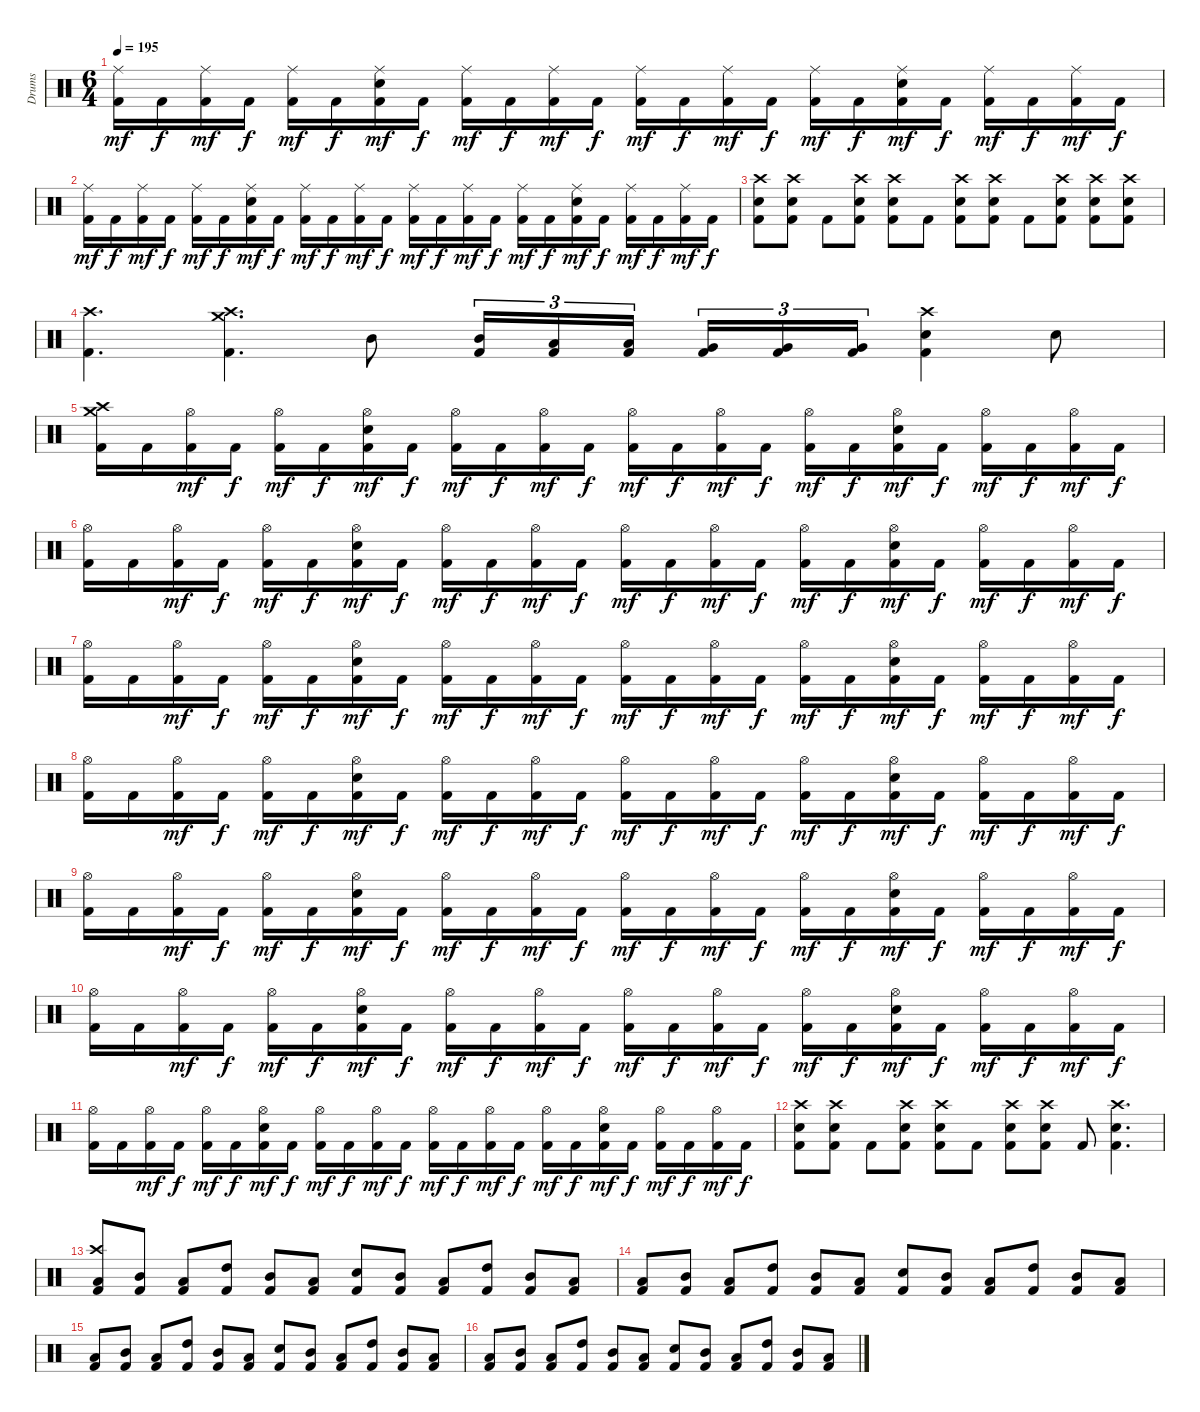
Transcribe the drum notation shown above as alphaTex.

\track ("Drums" "Drums") {instrument percussion}
\staff {score}
\articulation defaults
\ts (6 4)
\tempo 195
\clef neutral
\ks c
("Ride (middle)" "Kick (hit) 2").16{dy mf} "Kick (hit) 2".16{dy f} ("Ride (middle)" "Kick (hit) 2").16{dy mf} "Kick (hit) 2".16{dy f} ("Ride (middle)" "Kick (hit) 2").16{dy mf} "Kick (hit) 2".16{dy f} ("Ride (middle)" "Electric Snare (hit)" "Kick (hit) 2").16{dy mf} "Kick (hit) 2".16{dy f} ("Ride (middle)" "Kick (hit) 2").16{dy mf} "Kick (hit) 2".16{dy f} ("Ride (middle)" "Kick (hit) 2").16{dy mf} "Kick (hit) 2".16{dy f} ("Ride (middle)" "Kick (hit) 2").16{dy mf} "Kick (hit) 2".16{dy f} ("Ride (middle)" "Kick (hit) 2").16{dy mf} "Kick (hit) 2".16{dy f} ("Ride (middle)" "Kick (hit) 2").16{dy mf} "Kick (hit) 2".16{dy f} ("Ride (middle)" "Electric Snare (hit)" "Kick (hit) 2").16{dy mf} "Kick (hit) 2".16{dy f} ("Ride (middle)" "Kick (hit) 2").16{dy mf} "Kick (hit) 2".16{dy f} ("Ride (middle)" "Kick (hit) 2").16{dy mf} "Kick (hit) 2".16{dy f} |
("Ride (middle)" "Kick (hit) 2").16{dy mf} "Kick (hit) 2".16{dy f} ("Ride (middle)" "Kick (hit) 2").16{dy mf} "Kick (hit) 2".16{dy f} ("Ride (middle)" "Kick (hit) 2").16{dy mf} "Kick (hit) 2".16{dy f} ("Ride (middle)" "Electric Snare (hit)" "Kick (hit) 2").16{dy mf} "Kick (hit) 2".16{dy f} ("Ride (middle)" "Kick (hit) 2").16{dy mf} "Kick (hit) 2".16{dy f} ("Ride (middle)" "Kick (hit) 2").16{dy mf} "Kick (hit) 2".16{dy f} ("Ride (middle)" "Kick (hit) 2").16{dy mf} "Kick (hit) 2".16{dy f} ("Ride (middle)" "Kick (hit) 2").16{dy mf} "Kick (hit) 2".16{dy f} ("Ride (middle)" "Kick (hit) 2").16{dy mf} "Kick (hit) 2".16{dy f} ("Ride (middle)" "Electric Snare (hit)" "Kick (hit) 2").16{dy mf} "Kick (hit) 2".16{dy f} ("Ride (middle)" "Kick (hit) 2").16{dy mf} "Kick (hit) 2".16{dy f} ("Ride (middle)" "Kick (hit) 2").16{dy mf} "Kick (hit) 2".16{dy f} |
("Crash high (hit)" "Electric Snare (hit)" "Kick (hit) 2").8 ("Crash high (hit)" "Electric Snare (hit)" "Kick (hit) 2").8 "Kick (hit) 2".8 ("Crash high (hit)" "Electric Snare (hit)" "Kick (hit) 2").8 ("Crash high (hit)" "Electric Snare (hit)" "Kick (hit) 2").8 "Kick (hit) 2".8 ("Crash high (hit)" "Electric Snare (hit)" "Kick (hit) 2").8 ("Crash high (hit)" "Electric Snare (hit)" "Kick (hit) 2").8 "Kick (hit) 2".8 ("Crash high (hit)" "Electric Snare (hit)" "Kick (hit) 2").8 ("Crash high (hit)" "Electric Snare (hit)" "Kick (hit) 2").8 ("Crash high (hit)" "Electric Snare (hit)" "Kick (hit) 2").8 |
("Crash high (hit)" "Kick (hit) 2").4{d} ("Crash high (hit)" "Crash medium (hit)" "Kick (hit) 2").4{d} "Mid Tom (hit)".8 ("Mid Tom (hit)" "Kick (hit) 2").16{tu (3 2)} ("Low Tom (hit)" "Kick (hit) 2").16{tu (3 2)} ("Low Tom (hit)" "Kick (hit) 2").16{tu (3 2) beam splitsecondary} ("Very Low Tom (hit)" "Kick (hit) 2").16{tu (3 2)} ("Very Low Tom (hit)" "Kick (hit) 2").16{tu (3 2)} ("Very Low Tom (hit)" "Kick (hit) 2").16{tu (3 2)} ("Crash high (hit)" "Electric Snare (hit)" "Kick (hit) 2").4 "Electric Snare (hit)".8 |
("Crash high (hit)" "Crash medium (hit)" "Kick (hit) 2").16 "Kick (hit) 2".16 ("Hi-Hat (open)" "Kick (hit) 2").16{dy mf} "Kick (hit) 2".16{dy f} ("Hi-Hat (open)" "Kick (hit) 2").16{dy mf} "Kick (hit) 2".16{dy f} ("Hi-Hat (open)" "Electric Snare (hit)" "Kick (hit) 2").16{dy mf} "Kick (hit) 2".16{dy f} ("Hi-Hat (open)" "Kick (hit) 2").16{dy mf} "Kick (hit) 2".16{dy f} ("Hi-Hat (open)" "Kick (hit) 2").16{dy mf} "Kick (hit) 2".16{dy f} ("Hi-Hat (open)" "Kick (hit) 2").16{dy mf} "Kick (hit) 2".16{dy f} ("Hi-Hat (open)" "Kick (hit) 2").16{dy mf} "Kick (hit) 2".16{dy f} ("Hi-Hat (open)" "Kick (hit) 2").16{dy mf} "Kick (hit) 2".16{dy f} ("Hi-Hat (open)" "Electric Snare (hit)" "Kick (hit) 2").16{dy mf} "Kick (hit) 2".16{dy f} ("Hi-Hat (open)" "Kick (hit) 2").16{dy mf} "Kick (hit) 2".16{dy f} ("Hi-Hat (open)" "Kick (hit) 2").16{dy mf} "Kick (hit) 2".16{dy f} |
("Hi-Hat (open)" "Kick (hit) 2").16 "Kick (hit) 2".16 ("Hi-Hat (open)" "Kick (hit) 2").16{dy mf} "Kick (hit) 2".16{dy f} ("Hi-Hat (open)" "Kick (hit) 2").16{dy mf} "Kick (hit) 2".16{dy f} ("Hi-Hat (open)" "Electric Snare (hit)" "Kick (hit) 2").16{dy mf} "Kick (hit) 2".16{dy f} ("Hi-Hat (open)" "Kick (hit) 2").16{dy mf} "Kick (hit) 2".16{dy f} ("Hi-Hat (open)" "Kick (hit) 2").16{dy mf} "Kick (hit) 2".16{dy f} ("Hi-Hat (open)" "Kick (hit) 2").16{dy mf} "Kick (hit) 2".16{dy f} ("Hi-Hat (open)" "Kick (hit) 2").16{dy mf} "Kick (hit) 2".16{dy f} ("Hi-Hat (open)" "Kick (hit) 2").16{dy mf} "Kick (hit) 2".16{dy f} ("Hi-Hat (open)" "Electric Snare (hit)" "Kick (hit) 2").16{dy mf} "Kick (hit) 2".16{dy f} ("Hi-Hat (open)" "Kick (hit) 2").16{dy mf} "Kick (hit) 2".16{dy f} ("Hi-Hat (open)" "Kick (hit) 2").16{dy mf} "Kick (hit) 2".16{dy f} |
("Hi-Hat (open)" "Kick (hit) 2").16 "Kick (hit) 2".16 ("Hi-Hat (open)" "Kick (hit) 2").16{dy mf} "Kick (hit) 2".16{dy f} ("Hi-Hat (open)" "Kick (hit) 2").16{dy mf} "Kick (hit) 2".16{dy f} ("Hi-Hat (open)" "Electric Snare (hit)" "Kick (hit) 2").16{dy mf} "Kick (hit) 2".16{dy f} ("Hi-Hat (open)" "Kick (hit) 2").16{dy mf} "Kick (hit) 2".16{dy f} ("Hi-Hat (open)" "Kick (hit) 2").16{dy mf} "Kick (hit) 2".16{dy f} ("Hi-Hat (open)" "Kick (hit) 2").16{dy mf} "Kick (hit) 2".16{dy f} ("Hi-Hat (open)" "Kick (hit) 2").16{dy mf} "Kick (hit) 2".16{dy f} ("Hi-Hat (open)" "Kick (hit) 2").16{dy mf} "Kick (hit) 2".16{dy f} ("Hi-Hat (open)" "Electric Snare (hit)" "Kick (hit) 2").16{dy mf} "Kick (hit) 2".16{dy f} ("Hi-Hat (open)" "Kick (hit) 2").16{dy mf} "Kick (hit) 2".16{dy f} ("Hi-Hat (open)" "Kick (hit) 2").16{dy mf} "Kick (hit) 2".16{dy f} |
("Hi-Hat (open)" "Kick (hit) 2").16 "Kick (hit) 2".16 ("Hi-Hat (open)" "Kick (hit) 2").16{dy mf} "Kick (hit) 2".16{dy f} ("Hi-Hat (open)" "Kick (hit) 2").16{dy mf} "Kick (hit) 2".16{dy f} ("Hi-Hat (open)" "Electric Snare (hit)" "Kick (hit) 2").16{dy mf} "Kick (hit) 2".16{dy f} ("Hi-Hat (open)" "Kick (hit) 2").16{dy mf} "Kick (hit) 2".16{dy f} ("Hi-Hat (open)" "Kick (hit) 2").16{dy mf} "Kick (hit) 2".16{dy f} ("Hi-Hat (open)" "Kick (hit) 2").16{dy mf} "Kick (hit) 2".16{dy f} ("Hi-Hat (open)" "Kick (hit) 2").16{dy mf} "Kick (hit) 2".16{dy f} ("Hi-Hat (open)" "Kick (hit) 2").16{dy mf} "Kick (hit) 2".16{dy f} ("Hi-Hat (open)" "Electric Snare (hit)" "Kick (hit) 2").16{dy mf} "Kick (hit) 2".16{dy f} ("Hi-Hat (open)" "Kick (hit) 2").16{dy mf} "Kick (hit) 2".16{dy f} ("Hi-Hat (open)" "Kick (hit) 2").16{dy mf} "Kick (hit) 2".16{dy f} |
("Hi-Hat (open)" "Kick (hit) 2").16 "Kick (hit) 2".16 ("Hi-Hat (open)" "Kick (hit) 2").16{dy mf} "Kick (hit) 2".16{dy f} ("Hi-Hat (open)" "Kick (hit) 2").16{dy mf} "Kick (hit) 2".16{dy f} ("Hi-Hat (open)" "Electric Snare (hit)" "Kick (hit) 2").16{dy mf} "Kick (hit) 2".16{dy f} ("Hi-Hat (open)" "Kick (hit) 2").16{dy mf} "Kick (hit) 2".16{dy f} ("Hi-Hat (open)" "Kick (hit) 2").16{dy mf} "Kick (hit) 2".16{dy f} ("Hi-Hat (open)" "Kick (hit) 2").16{dy mf} "Kick (hit) 2".16{dy f} ("Hi-Hat (open)" "Kick (hit) 2").16{dy mf} "Kick (hit) 2".16{dy f} ("Hi-Hat (open)" "Kick (hit) 2").16{dy mf} "Kick (hit) 2".16{dy f} ("Hi-Hat (open)" "Electric Snare (hit)" "Kick (hit) 2").16{dy mf} "Kick (hit) 2".16{dy f} ("Hi-Hat (open)" "Kick (hit) 2").16{dy mf} "Kick (hit) 2".16{dy f} ("Hi-Hat (open)" "Kick (hit) 2").16{dy mf} "Kick (hit) 2".16{dy f} |
("Hi-Hat (open)" "Kick (hit) 2").16 "Kick (hit) 2".16 ("Hi-Hat (open)" "Kick (hit) 2").16{dy mf} "Kick (hit) 2".16{dy f} ("Hi-Hat (open)" "Kick (hit) 2").16{dy mf} "Kick (hit) 2".16{dy f} ("Hi-Hat (open)" "Electric Snare (hit)" "Kick (hit) 2").16{dy mf} "Kick (hit) 2".16{dy f} ("Hi-Hat (open)" "Kick (hit) 2").16{dy mf} "Kick (hit) 2".16{dy f} ("Hi-Hat (open)" "Kick (hit) 2").16{dy mf} "Kick (hit) 2".16{dy f} ("Hi-Hat (open)" "Kick (hit) 2").16{dy mf} "Kick (hit) 2".16{dy f} ("Hi-Hat (open)" "Kick (hit) 2").16{dy mf} "Kick (hit) 2".16{dy f} ("Hi-Hat (open)" "Kick (hit) 2").16{dy mf} "Kick (hit) 2".16{dy f} ("Hi-Hat (open)" "Electric Snare (hit)" "Kick (hit) 2").16{dy mf} "Kick (hit) 2".16{dy f} ("Hi-Hat (open)" "Kick (hit) 2").16{dy mf} "Kick (hit) 2".16{dy f} ("Hi-Hat (open)" "Kick (hit) 2").16{dy mf} "Kick (hit) 2".16{dy f} |
("Hi-Hat (open)" "Kick (hit) 2").16 "Kick (hit) 2".16 ("Hi-Hat (open)" "Kick (hit) 2").16{dy mf} "Kick (hit) 2".16{dy f} ("Hi-Hat (open)" "Kick (hit) 2").16{dy mf} "Kick (hit) 2".16{dy f} ("Hi-Hat (open)" "Electric Snare (hit)" "Kick (hit) 2").16{dy mf} "Kick (hit) 2".16{dy f} ("Hi-Hat (open)" "Kick (hit) 2").16{dy mf} "Kick (hit) 2".16{dy f} ("Hi-Hat (open)" "Kick (hit) 2").16{dy mf} "Kick (hit) 2".16{dy f} ("Hi-Hat (open)" "Kick (hit) 2").16{dy mf} "Kick (hit) 2".16{dy f} ("Hi-Hat (open)" "Kick (hit) 2").16{dy mf} "Kick (hit) 2".16{dy f} ("Hi-Hat (open)" "Kick (hit) 2").16{dy mf} "Kick (hit) 2".16{dy f} ("Hi-Hat (open)" "Electric Snare (hit)" "Kick (hit) 2").16{dy mf} "Kick (hit) 2".16{dy f} ("Hi-Hat (open)" "Kick (hit) 2").16{dy mf} "Kick (hit) 2".16{dy f} ("Hi-Hat (open)" "Kick (hit) 2").16{dy mf} "Kick (hit) 2".16{dy f} |
("Crash high (hit)" "Electric Snare (hit)" "Kick (hit) 2").8 ("Crash high (hit)" "Electric Snare (hit)" "Kick (hit) 2").8 "Kick (hit) 2".8 ("Crash high (hit)" "Electric Snare (hit)" "Kick (hit) 2").8 ("Crash high (hit)" "Electric Snare (hit)" "Kick (hit) 2").8 "Kick (hit) 2".8 ("Crash high (hit)" "Electric Snare (hit)" "Kick (hit) 2").8 ("Crash high (hit)" "Electric Snare (hit)" "Kick (hit) 2").8 "Kick (hit) 2".8 ("Crash high (hit)" "Electric Snare (hit)" "Kick (hit) 2").4{d} |
("Crash high (hit)" "Low Tom (hit)" "Kick (hit) 2").8 ("Mid Tom (hit)" "Kick (hit) 2").8 ("Low Tom (hit)" "Kick (hit) 2").8 ("High Tom (hit)" "Kick (hit) 2").8 ("Mid Tom (hit)" "Kick (hit) 2").8 ("Low Tom (hit)" "Kick (hit) 2").8 ("Electric Snare (hit)" "Kick (hit) 2").8 ("Mid Tom (hit)" "Kick (hit) 2").8 ("Low Tom (hit)" "Kick (hit) 2").8 ("High Tom (hit)" "Kick (hit) 2").8 ("Mid Tom (hit)" "Kick (hit) 2").8 ("Low Tom (hit)" "Kick (hit) 2").8 |
("Low Tom (hit)" "Kick (hit) 2").8 ("Mid Tom (hit)" "Kick (hit) 2").8 ("Low Tom (hit)" "Kick (hit) 2").8 ("High Tom (hit)" "Kick (hit) 2").8 ("Mid Tom (hit)" "Kick (hit) 2").8 ("Low Tom (hit)" "Kick (hit) 2").8 ("Electric Snare (hit)" "Kick (hit) 2").8 ("Mid Tom (hit)" "Kick (hit) 2").8 ("Low Tom (hit)" "Kick (hit) 2").8 ("High Tom (hit)" "Kick (hit) 2").8 ("Mid Tom (hit)" "Kick (hit) 2").8 ("Low Tom (hit)" "Kick (hit) 2").8 |
("Low Tom (hit)" "Kick (hit) 2").8 ("Mid Tom (hit)" "Kick (hit) 2").8 ("Low Tom (hit)" "Kick (hit) 2").8 ("High Tom (hit)" "Kick (hit) 2").8 ("Mid Tom (hit)" "Kick (hit) 2").8 ("Low Tom (hit)" "Kick (hit) 2").8 ("Electric Snare (hit)" "Kick (hit) 2").8 ("Mid Tom (hit)" "Kick (hit) 2").8 ("Low Tom (hit)" "Kick (hit) 2").8 ("High Tom (hit)" "Kick (hit) 2").8 ("Mid Tom (hit)" "Kick (hit) 2").8 ("Low Tom (hit)" "Kick (hit) 2").8 |
("Low Tom (hit)" "Kick (hit) 2").8 ("Mid Tom (hit)" "Kick (hit) 2").8 ("Low Tom (hit)" "Kick (hit) 2").8 ("High Tom (hit)" "Kick (hit) 2").8 ("Mid Tom (hit)" "Kick (hit) 2").8 ("Low Tom (hit)" "Kick (hit) 2").8 ("Electric Snare (hit)" "Kick (hit) 2").8 ("Mid Tom (hit)" "Kick (hit) 2").8 ("Low Tom (hit)" "Kick (hit) 2").8 ("High Tom (hit)" "Kick (hit) 2").8 ("Mid Tom (hit)" "Kick (hit) 2").8 ("Low Tom (hit)" "Kick (hit) 2").8
